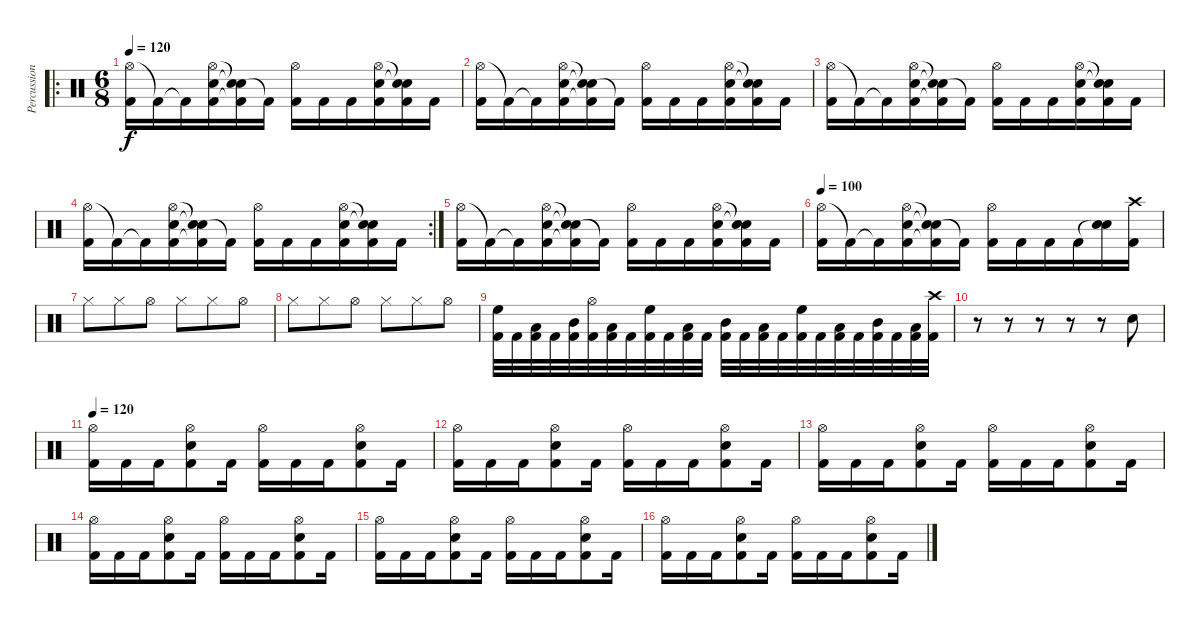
\track ("Percussion" "Percussion") {instrument percussion}
\staff {score}
\articulation defaults
\ro
\ts (6 8)
\tempo 120
\clef neutral
\ks c
("Hi-Hat (open)" "Kick (hit) 2").16{dy f} "Kick (hit) 2"{t}.16 "Kick (hit) 2"{t}.16 ("Hi-Hat (open)" "Snare (hit) 2" "Kick (hit) 2").16 ("Snare (hit)"{t} "Snare (hit)"{t} "Kick (hit) 2"{t}).16 "Kick (hit) 2"{t}.16 ("Hi-Hat (open)" "Kick (hit) 2").16 "Kick (hit) 2".16 "Kick (hit) 2".16 ("Hi-Hat (open)" "Snare (hit) 2" "Kick (hit) 2").16 ("Snare (hit)"{t} "Snare (hit)"{t} "Kick (hit) 2").16 "Kick (hit) 2".16 |
("Hi-Hat (open)" "Kick (hit) 2").16 "Kick (hit) 2"{t}.16 "Kick (hit) 2"{t}.16 ("Hi-Hat (open)" "Snare (hit) 2" "Kick (hit) 2").16 ("Snare (hit)"{t} "Snare (hit)"{t} "Kick (hit) 2"{t}).16 "Kick (hit) 2"{t}.16 ("Hi-Hat (open)" "Kick (hit) 2").16 "Kick (hit) 2".16 "Kick (hit) 2".16 ("Hi-Hat (open)" "Snare (hit) 2" "Kick (hit) 2").16 ("Snare (hit)"{t} "Snare (hit)"{t} "Kick (hit) 2").16 "Kick (hit) 2".16 |
("Hi-Hat (open)" "Kick (hit) 2").16 "Kick (hit) 2"{t}.16 "Kick (hit) 2"{t}.16 ("Hi-Hat (open)" "Snare (hit) 2" "Kick (hit) 2").16 ("Snare (hit)"{t} "Snare (hit)"{t} "Kick (hit) 2"{t}).16 "Kick (hit) 2"{t}.16 ("Hi-Hat (open)" "Kick (hit) 2").16 "Kick (hit) 2".16 "Kick (hit) 2".16 ("Hi-Hat (open)" "Snare (hit) 2" "Kick (hit) 2").16 ("Snare (hit)"{t} "Snare (hit)"{t} "Kick (hit) 2").16 "Kick (hit) 2".16 |
\rc 2
("Hi-Hat (open)" "Kick (hit) 2").16 "Kick (hit) 2"{t}.16 "Kick (hit) 2"{t}.16 ("Hi-Hat (open)" "Snare (hit) 2" "Kick (hit) 2").16 ("Snare (hit)"{t} "Snare (hit)"{t} "Kick (hit) 2"{t}).16 "Kick (hit) 2"{t}.16 ("Hi-Hat (open)" "Kick (hit) 2").16 "Kick (hit) 2".16 "Kick (hit) 2".16 ("Hi-Hat (open)" "Snare (hit) 2" "Kick (hit) 2").16 ("Snare (hit)"{t} "Snare (hit)"{t} "Kick (hit) 2").16 "Kick (hit) 2".16 |
("Hi-Hat (open)" "Kick (hit) 2").16 "Kick (hit) 2"{t}.16 "Kick (hit) 2"{t}.16 ("Hi-Hat (open)" "Snare (hit) 2" "Kick (hit) 2").16 ("Snare (hit)"{t} "Snare (hit)"{t} "Kick (hit) 2"{t}).16 "Kick (hit) 2"{t}.16 ("Hi-Hat (open)" "Kick (hit) 2").16 "Kick (hit) 2".16 "Kick (hit) 2".16 ("Hi-Hat (open)" "Snare (hit) 2" "Kick (hit) 2").16 ("Snare (hit)"{t} "Snare (hit)"{t} "Kick (hit) 2").16 "Kick (hit) 2".16 |
\tempo 100
("Hi-Hat (open)" "Kick (hit) 2").16 "Kick (hit) 2"{t}.16 "Kick (hit) 2"{t}.16 ("Hi-Hat (open)" "Snare (hit) 2" "Kick (hit) 2").16 ("Snare (hit)"{t} "Snare (hit)"{t} "Kick (hit) 2"{t}).16 "Kick (hit) 2"{t}.16 ("Hi-Hat (open)" "Kick (hit) 2").16 "Kick (hit) 2".16 "Kick (hit) 2".16 "Kick (hit) 2".16 ("Snare (hit)"{t} "Electric Snare (hit)").16 ("Crash high (hit)" "Kick (hit) 2").16 |
"Hi-Hat (closed)".8 "Hi-Hat (closed)".8 "Hi-Hat (open)".8 "Hi-Hat (closed)".8 "Hi-Hat (closed)".8 "Hi-Hat (open)".8 |
"Hi-Hat (closed)".8 "Hi-Hat (closed)".8 "Hi-Hat (open)".8 "Hi-Hat (closed)".8 "Hi-Hat (closed)".8 "Hi-Hat (open)".8 |
("High Floor Tom (hit)" "Kick (hit) 2").32 "Kick (hit) 2".32 ("Low Floor Tom (hit)" "Kick (hit) 2").32 "Kick (hit) 2".32 ("Mid Tom (hit)" "Kick (hit) 2").32 ("Hi-Hat (open)" "Kick (hit) 2").32 ("Low Tom (hit)" "Kick (hit) 2").32 "Kick (hit) 2".32 ("High Floor Tom (hit)" "Kick (hit) 2").32 "Kick (hit) 2".32 ("Low Floor Tom (hit)" "Kick (hit) 2").32 "Kick (hit) 2".32 ("Mid Tom (hit)" "Kick (hit) 2").32 "Kick (hit) 2".32 ("Low Tom (hit)" "Kick (hit) 2").32 "Kick (hit) 2".32 ("High Floor Tom (hit)" "Kick (hit) 2").32 "Kick (hit) 2".32 ("Low Floor Tom (hit)" "Kick (hit) 2").32 "Kick (hit) 2".32 ("Mid Tom (hit)" "Kick (hit) 2").32 "Kick (hit) 2".32 ("Low Tom (hit)" "Kick (hit) 2").32 ("Crash high (hit)" "Kick (hit) 2").32 |
r.8 r.8 r.8 r.8 r.8 "Electric Snare (hit)".8 |
\tempo 120
("Hi-Hat (open)" "Kick (hit) 2").16 "Kick (hit) 2".16 "Kick (hit) 2".16 ("Hi-Hat (open)" "Snare (hit) 2" "Kick (hit) 2").8 "Kick (hit) 2".16 ("Hi-Hat (open)" "Kick (hit) 2").16 "Kick (hit) 2".16 "Kick (hit) 2".16 ("Hi-Hat (open)" "Snare (hit) 2" "Kick (hit) 2").8 "Kick (hit) 2".16 |
("Hi-Hat (open)" "Kick (hit) 2").16 "Kick (hit) 2".16 "Kick (hit) 2".16 ("Hi-Hat (open)" "Snare (hit) 2" "Kick (hit) 2").8 "Kick (hit) 2".16 ("Hi-Hat (open)" "Kick (hit) 2").16 "Kick (hit) 2".16 "Kick (hit) 2".16 ("Hi-Hat (open)" "Snare (hit) 2" "Kick (hit) 2").8 "Kick (hit) 2".16 |
("Hi-Hat (open)" "Kick (hit) 2").16 "Kick (hit) 2".16 "Kick (hit) 2".16 ("Hi-Hat (open)" "Snare (hit) 2" "Kick (hit) 2").8 "Kick (hit) 2".16 ("Hi-Hat (open)" "Kick (hit) 2").16 "Kick (hit) 2".16 "Kick (hit) 2".16 ("Hi-Hat (open)" "Snare (hit) 2" "Kick (hit) 2").8 "Kick (hit) 2".16 |
("Hi-Hat (open)" "Kick (hit) 2").16 "Kick (hit) 2".16 "Kick (hit) 2".16 ("Hi-Hat (open)" "Snare (hit) 2" "Kick (hit) 2").8 "Kick (hit) 2".16 ("Hi-Hat (open)" "Kick (hit) 2").16 "Kick (hit) 2".16 "Kick (hit) 2".16 ("Hi-Hat (open)" "Snare (hit) 2" "Kick (hit) 2").8 "Kick (hit) 2".16 |
("Hi-Hat (open)" "Kick (hit) 2").16 "Kick (hit) 2".16 "Kick (hit) 2".16 ("Hi-Hat (open)" "Snare (hit) 2" "Kick (hit) 2").8 "Kick (hit) 2".16 ("Hi-Hat (open)" "Kick (hit) 2").16 "Kick (hit) 2".16 "Kick (hit) 2".16 ("Hi-Hat (open)" "Snare (hit) 2" "Kick (hit) 2").8 "Kick (hit) 2".16 |
("Hi-Hat (open)" "Kick (hit) 2").16 "Kick (hit) 2".16 "Kick (hit) 2".16 ("Hi-Hat (open)" "Snare (hit) 2" "Kick (hit) 2").8 "Kick (hit) 2".16 ("Hi-Hat (open)" "Kick (hit) 2").16 "Kick (hit) 2".16 "Kick (hit) 2".16 ("Hi-Hat (open)" "Snare (hit) 2" "Kick (hit) 2").8 "Kick (hit) 2".16
